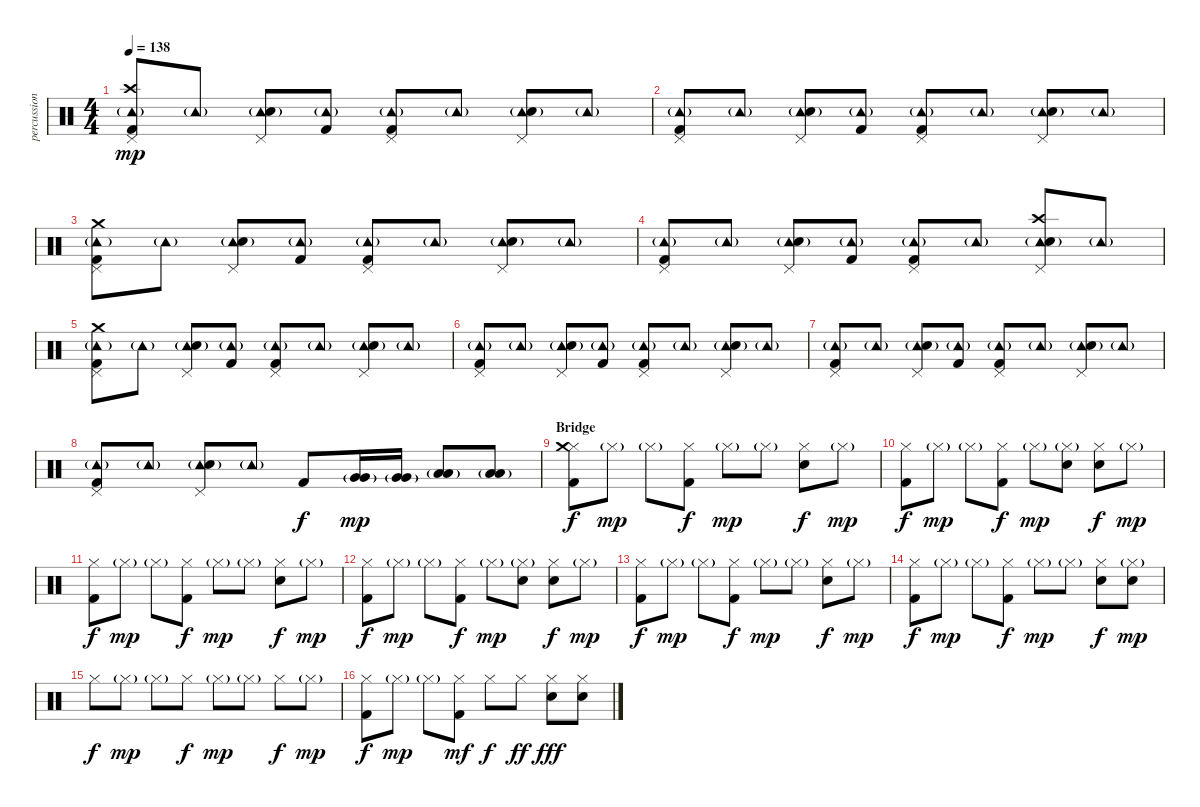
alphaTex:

\track ("percussion - vom" "percussion") {instrument percussion}
\staff {score}
\articulation defaults
\ts (4 4)
\tempo 138
\clef neutral
\ks c
("Pedal Hi-Hat (hit)" "Tambourine (hit)"{g} "Crash high (hit)" "Kick (hit) 2").8{dy mp} "Tambourine (hit)"{g}.8 ("Pedal Hi-Hat (hit)" "Tambourine (hit)"{g} "Snare (hit) 2").8 ("Tambourine (hit)"{g} "Kick (hit) 2").8 ("Pedal Hi-Hat (hit)" "Tambourine (hit)"{g} "Kick (hit) 2").8 "Tambourine (hit)"{g}.8 ("Pedal Hi-Hat (hit)" "Tambourine (hit)"{g} "Snare (hit) 2").8 "Tambourine (hit)"{g}.8 |
("Pedal Hi-Hat (hit)" "Tambourine (hit)"{g} "Kick (hit) 2").8 "Tambourine (hit)"{g}.8 ("Pedal Hi-Hat (hit)" "Tambourine (hit)"{g} "Snare (hit) 2").8 ("Tambourine (hit)"{g} "Kick (hit) 2").8 ("Pedal Hi-Hat (hit)" "Tambourine (hit)"{g} "Kick (hit) 2").8 "Tambourine (hit)"{g}.8 ("Pedal Hi-Hat (hit)" "Tambourine (hit)"{g} "Snare (hit) 2").8 "Tambourine (hit)"{g}.8 |
("Pedal Hi-Hat (hit)" "Tambourine (hit)"{g} "Crash medium (hit)" "Kick (hit) 2").8 "Tambourine (hit)"{g}.8 ("Pedal Hi-Hat (hit)" "Tambourine (hit)"{g} "Snare (hit) 2").8 ("Tambourine (hit)"{g} "Kick (hit) 2").8 ("Pedal Hi-Hat (hit)" "Tambourine (hit)"{g} "Kick (hit) 2").8 "Tambourine (hit)"{g}.8 ("Pedal Hi-Hat (hit)" "Tambourine (hit)"{g} "Snare (hit) 2").8 "Tambourine (hit)"{g}.8 |
("Pedal Hi-Hat (hit)" "Tambourine (hit)"{g} "Kick (hit) 2").8 "Tambourine (hit)"{g}.8 ("Pedal Hi-Hat (hit)" "Tambourine (hit)"{g} "Snare (hit) 2").8 ("Tambourine (hit)"{g} "Kick (hit) 2").8 ("Pedal Hi-Hat (hit)" "Tambourine (hit)"{g} "Kick (hit) 2").8 "Tambourine (hit)"{g}.8 ("Pedal Hi-Hat (hit)" "Tambourine (hit)"{g} "Crash high (hit)" "Snare (hit) 2").8 "Tambourine (hit)"{g}.8 |
("Pedal Hi-Hat (hit)" "Tambourine (hit)"{g} "Crash medium (hit)" "Kick (hit) 2").8 "Tambourine (hit)"{g}.8 ("Pedal Hi-Hat (hit)" "Tambourine (hit)"{g} "Snare (hit) 2").8 ("Tambourine (hit)"{g} "Kick (hit) 2").8 ("Pedal Hi-Hat (hit)" "Tambourine (hit)"{g} "Kick (hit) 2").8 "Tambourine (hit)"{g}.8 ("Pedal Hi-Hat (hit)" "Tambourine (hit)"{g} "Snare (hit) 2").8 "Tambourine (hit)"{g}.8 |
("Pedal Hi-Hat (hit)" "Tambourine (hit)"{g} "Kick (hit) 2").8 "Tambourine (hit)"{g}.8 ("Pedal Hi-Hat (hit)" "Tambourine (hit)"{g} "Snare (hit) 2").8 ("Tambourine (hit)"{g} "Kick (hit) 2").8 ("Pedal Hi-Hat (hit)" "Tambourine (hit)"{g} "Kick (hit) 2").8 "Tambourine (hit)"{g}.8 ("Pedal Hi-Hat (hit)" "Tambourine (hit)"{g} "Snare (hit) 2").8 "Tambourine (hit)"{g}.8 |
("Pedal Hi-Hat (hit)" "Tambourine (hit)"{g} "Kick (hit) 2").8 "Tambourine (hit)"{g}.8 ("Pedal Hi-Hat (hit)" "Tambourine (hit)"{g} "Snare (hit) 2").8 ("Tambourine (hit)"{g} "Kick (hit) 2").8 ("Pedal Hi-Hat (hit)" "Tambourine (hit)"{g} "Kick (hit) 2").8 "Tambourine (hit)"{g}.8 ("Pedal Hi-Hat (hit)" "Tambourine (hit)"{g} "Snare (hit) 2").8 "Tambourine (hit)"{g}.8 |
("Pedal Hi-Hat (hit)" "Tambourine (hit)"{g} "Kick (hit) 2").8 "Tambourine (hit)"{g}.8 ("Pedal Hi-Hat (hit)" "Tambourine (hit)"{g} "Snare (hit) 2").8 "Tambourine (hit)"{g}.8 "Kick (hit) 2".8{dy f} ("Very Low Tom (hit)" "Very Low Tom (hit)"{g}).16{bu 480 dy mp} ("Very Low Tom (hit)" "Very Low Tom (hit)"{g}).16{bu 480} ("Low Floor Tom (hit)" "Low Floor Tom (hit)"{g}).8{bu 480} ("Low Floor Tom (hit)" "Low Floor Tom (hit)"{g}).8{bu 480} |
\section ("" "Bridge")
("Hi-Hat (closed)" "Crash medium (hit)" "Kick (hit) 2").8{dy f} "Hi-Hat (closed)"{g}.8{dy mp} "Hi-Hat (closed)"{g}.8 ("Hi-Hat (closed)" "Kick (hit) 2").8{dy f} "Hi-Hat (closed)"{g}.8{dy mp} "Hi-Hat (closed)"{g}.8 ("Hi-Hat (closed)" "Snare (hit) 2").8{dy f} "Hi-Hat (closed)"{g}.8{dy mp} |
("Hi-Hat (closed)" "Kick (hit) 2").8{dy f} "Hi-Hat (closed)"{g}.8{dy mp} "Hi-Hat (closed)"{g}.8 ("Hi-Hat (closed)" "Kick (hit) 2").8{dy f} "Hi-Hat (closed)"{g}.8{dy mp} ("Hi-Hat (closed)"{g} "Snare (hit) 2").8 ("Hi-Hat (closed)" "Snare (hit) 2"{tr (38 16)}).8{dy f} "Hi-Hat (closed)"{g}.8{dy mp} |
("Hi-Hat (closed)" "Kick (hit) 2").8{dy f} "Hi-Hat (closed)"{g}.8{dy mp} "Hi-Hat (closed)"{g}.8 ("Hi-Hat (closed)" "Kick (hit) 2").8{dy f} "Hi-Hat (closed)"{g}.8{dy mp} "Hi-Hat (closed)"{g}.8 ("Hi-Hat (closed)" "Snare (hit) 2").8{dy f} "Hi-Hat (closed)"{g}.8{dy mp} |
("Hi-Hat (closed)" "Kick (hit) 2").8{dy f} "Hi-Hat (closed)"{g}.8{dy mp} "Hi-Hat (closed)"{g}.8 ("Hi-Hat (closed)" "Kick (hit) 2").8{dy f} "Hi-Hat (closed)"{g}.8{dy mp} ("Hi-Hat (closed)"{g} "Snare (hit) 2").8 ("Hi-Hat (closed)" "Snare (hit) 2"{tr (38 16)}).8{dy f} "Hi-Hat (closed)"{g}.8{dy mp} |
("Hi-Hat (closed)" "Kick (hit) 2").8{dy f} "Hi-Hat (closed)"{g}.8{dy mp} "Hi-Hat (closed)"{g}.8 ("Hi-Hat (closed)" "Kick (hit) 2").8{dy f} "Hi-Hat (closed)"{g}.8{dy mp} "Hi-Hat (closed)"{g}.8 ("Hi-Hat (closed)" "Snare (hit) 2").8{dy f} "Hi-Hat (closed)"{g}.8{dy mp} |
("Hi-Hat (closed)" "Kick (hit) 2").8{dy f} "Hi-Hat (closed)"{g}.8{dy mp} "Hi-Hat (closed)"{g}.8 ("Hi-Hat (closed)" "Kick (hit) 2").8{dy f} "Hi-Hat (closed)"{g}.8{dy mp} "Hi-Hat (closed)"{g}.8 ("Hi-Hat (closed)" "Snare (hit) 2").8{dy f} ("Hi-Hat (closed)"{g} "Snare (hit) 2"{tr (38 16)}).8{dy mp} |
"Hi-Hat (closed)".8{dy f} "Hi-Hat (closed)"{g}.8{dy mp} "Hi-Hat (closed)"{g}.8 "Hi-Hat (closed)".8{dy f} "Hi-Hat (closed)"{g}.8{dy mp} "Hi-Hat (closed)"{g}.8 "Hi-Hat (closed)".8{dy f} "Hi-Hat (closed)"{g}.8{dy mp} |
("Hi-Hat (closed)" "Kick (hit) 2").8{dy f} "Hi-Hat (closed)"{g}.8{dy mp} "Hi-Hat (closed)"{g}.8 ("Hi-Hat (closed)" "Kick (hit) 2").8{dy mf} "Hi-Hat (closed)".8{dy f} "Hi-Hat (closed)".8{dy ff} ("Hi-Hat (closed)" "Snare (hit) 2").8{dy fff} ("Hi-Hat (closed)" "Snare (hit) 2"{tr (38 16)}).8
